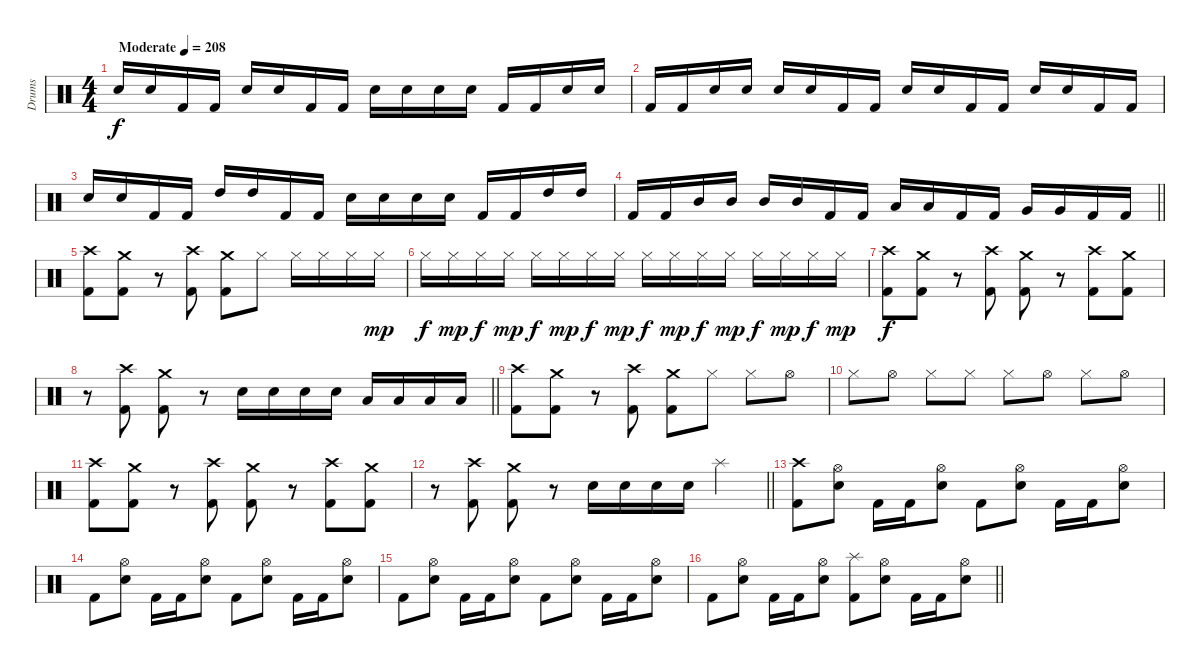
\track ("Drums" "Drums") {instrument percussion}
\staff {score}
\articulation defaults
\ts (4 4)
\tempo (208 "Moderate")
\clef neutral
\ks c "Electric Snare (hit)".16{dy f} "Electric Snare (hit)".16 "Kick (hit) 2".16 "Kick (hit) 2".16 "Electric Snare (hit)".16 "Electric Snare (hit)".16 "Kick (hit) 2".16 "Kick (hit) 2".16 "Electric Snare (hit)".16 "Electric Snare (hit)".16 "Electric Snare (hit)".16 "Electric Snare (hit)".16 "Kick (hit) 2".16 "Kick (hit) 2".16 "Electric Snare (hit)".16 "Electric Snare (hit)".16
|
"Kick (hit) 2".16 "Kick (hit) 2".16 "Electric Snare (hit)".16 "Electric Snare (hit)".16 "Electric Snare (hit)".16 "Electric Snare (hit)".16 "Kick (hit) 2".16 "Kick (hit) 2".16 "Electric Snare (hit)".16 "Electric Snare (hit)".16 "Kick (hit) 2".16 "Kick (hit) 2".16 "Electric Snare (hit)".16 "Electric Snare (hit)".16 "Kick (hit) 2".16 "Kick (hit) 2".16 |
"Electric Snare (hit)".16 "Electric Snare (hit)".16 "Kick (hit) 2".16 "Kick (hit) 2".16 "High Tom (hit)".16 "High Tom (hit)".16 "Kick (hit) 2".16 "Kick (hit) 2".16 "Electric Snare (hit)".16 "Electric Snare (hit)".16 "Electric Snare (hit)".16 "Electric Snare (hit)".16 "Kick (hit) 2".16 "Kick (hit) 2".16 "High Tom (hit)".16 "High Tom (hit)".16 |
\barLineRight lightlight "Kick (hit) 2".16 "Kick (hit) 2".16 "Mid Tom (hit)".16 "Mid Tom (hit)".16 "Mid Tom (hit)".16 "Mid Tom (hit)".16 "Kick (hit) 2".16 "Kick (hit) 2".16 "Low Tom (hit)".16 "Low Tom (hit)".16 "Kick (hit) 2".16 "Kick (hit) 2".16 "Very Low Tom (hit)".16 "Very Low Tom (hit)".16 "Kick (hit) 2".16 "Kick (hit) 2".16
|
("Crash high (hit)" "Kick (hit) 2").8 ("Crash medium (hit)" "Kick (hit) 2").8 r.8 ("Crash high (hit)" "Kick (hit) 2").8 ("Crash medium (hit)" "Kick (hit) 2").8 "Hi-Hat (closed)".8 "Hi-Hat (closed)".16 "Hi-Hat (closed)".16 "Hi-Hat (closed)".16 "Hi-Hat (closed)".16{dy mp} |
"Hi-Hat (closed)".16{dy f} "Hi-Hat (closed)".16{dy mp} "Hi-Hat (closed)".16{dy f} "Hi-Hat (closed)".16{dy mp} "Hi-Hat (closed)".16{dy f} "Hi-Hat (closed)".16{dy mp} "Hi-Hat (closed)".16{dy f} "Hi-Hat (closed)".16{dy mp} "Hi-Hat (closed)".16{dy f} "Hi-Hat (closed)".16{dy mp} "Hi-Hat (closed)".16{dy f} "Hi-Hat (closed)".16{dy mp} "Hi-Hat (closed)".16{dy f} "Hi-Hat (closed)".16{dy mp} "Hi-Hat (closed)".16{dy f} "Hi-Hat (closed)".16{dy mp} |
("Crash high (hit)" "Kick (hit) 2").8{dy f} ("Crash medium (hit)" "Kick (hit) 2").8 r.8 ("Crash high (hit)" "Kick (hit) 2").8 ("Crash medium (hit)" "Kick (hit) 2").8 r.8 ("Crash high (hit)" "Kick (hit) 2").8 ("Crash medium (hit)" "Kick (hit) 2").8 |
\barLineRight lightlight
r.8 ("Crash high (hit)" "Kick (hit) 2").8 ("Crash medium (hit)" "Kick (hit) 2").8 r.8 "Electric Snare (hit)".16 "Electric Snare (hit)".16 "Electric Snare (hit)".16 "Electric Snare (hit)".16 "Low Tom (hit)".16 "Low Tom (hit)".16 "Low Tom (hit)".16 "Low Tom (hit)".16 |
("Crash high (hit)" "Kick (hit) 2").8 ("Crash medium (hit)" "Kick (hit) 2").8 r.8 ("Crash high (hit)" "Kick (hit) 2").8 ("Crash medium (hit)" "Kick (hit) 2").8 "Hi-Hat (closed)".8 "Hi-Hat (closed)".8 "Hi-Hat (open)".8 |
"Hi-Hat (closed)".8 "Hi-Hat (open)".8 "Hi-Hat (closed)".8 "Hi-Hat (closed)".8 "Hi-Hat (closed)".8 "Hi-Hat (open)".8 "Hi-Hat (closed)".8 "Hi-Hat (open)".8 |
("Crash high (hit)" "Kick (hit) 2").8 ("Crash medium (hit)" "Kick (hit) 2").8 r.8 ("Crash high (hit)" "Kick (hit) 2").8 ("Crash medium (hit)" "Kick (hit) 2").8 r.8 ("Crash high (hit)" "Kick (hit) 2").8 ("Crash medium (hit)" "Kick (hit) 2").8 |
\barLineRight lightlight
r.8 ("Crash high (hit)" "Kick (hit) 2").8 ("Crash medium (hit)" "Kick (hit) 2").8 r.8 "Electric Snare (hit)".16 "Electric Snare (hit)".16 "Electric Snare (hit)".16 "Electric Snare (hit)".16 "Splash (hit)".4 |
("Crash high (hit)" "Kick (hit) 2").8 ("Hi-Hat (open)" "Electric Snare (hit)").8 "Kick (hit) 2".16 "Kick (hit) 2".16 ("Hi-Hat (open)" "Electric Snare (hit)").8 "Kick (hit) 2".8 ("Hi-Hat (open)" "Electric Snare (hit)").8 "Kick (hit) 2".16 "Kick (hit) 2".16 ("Hi-Hat (open)" "Electric Snare (hit)").8 |
"Kick (hit) 2".8 ("Hi-Hat (open)" "Electric Snare (hit)").8 "Kick (hit) 2".16 "Kick (hit) 2".16 ("Hi-Hat (open)" "Electric Snare (hit)").8 "Kick (hit) 2".8 ("Hi-Hat (open)" "Electric Snare (hit)").8 "Kick (hit) 2".16 "Kick (hit) 2".16 ("Hi-Hat (open)" "Electric Snare (hit)").8 |
"Kick (hit) 2".8 ("Hi-Hat (open)" "Electric Snare (hit)").8 "Kick (hit) 2".16 "Kick (hit) 2".16 ("Hi-Hat (open)" "Electric Snare (hit)").8 "Kick (hit) 2".8 ("Hi-Hat (open)" "Electric Snare (hit)").8 "Kick (hit) 2".16 "Kick (hit) 2".16 ("Hi-Hat (open)" "Electric Snare (hit)").8 |
\barLineRight lightlight "Kick (hit) 2".8
("Hi-Hat (open)" "Electric Snare (hit)").8 "Kick (hit) 2".16 "Kick (hit) 2".16 ("Hi-Hat (open)" "Electric Snare (hit)").8 ("Splash (hit)" "Kick (hit) 2").8 ("Hi-Hat (open)" "Electric Snare (hit)").8 "Kick (hit) 2".16 "Kick (hit) 2".16 ("Hi-Hat (open)" "Electric Snare (hit)").8
